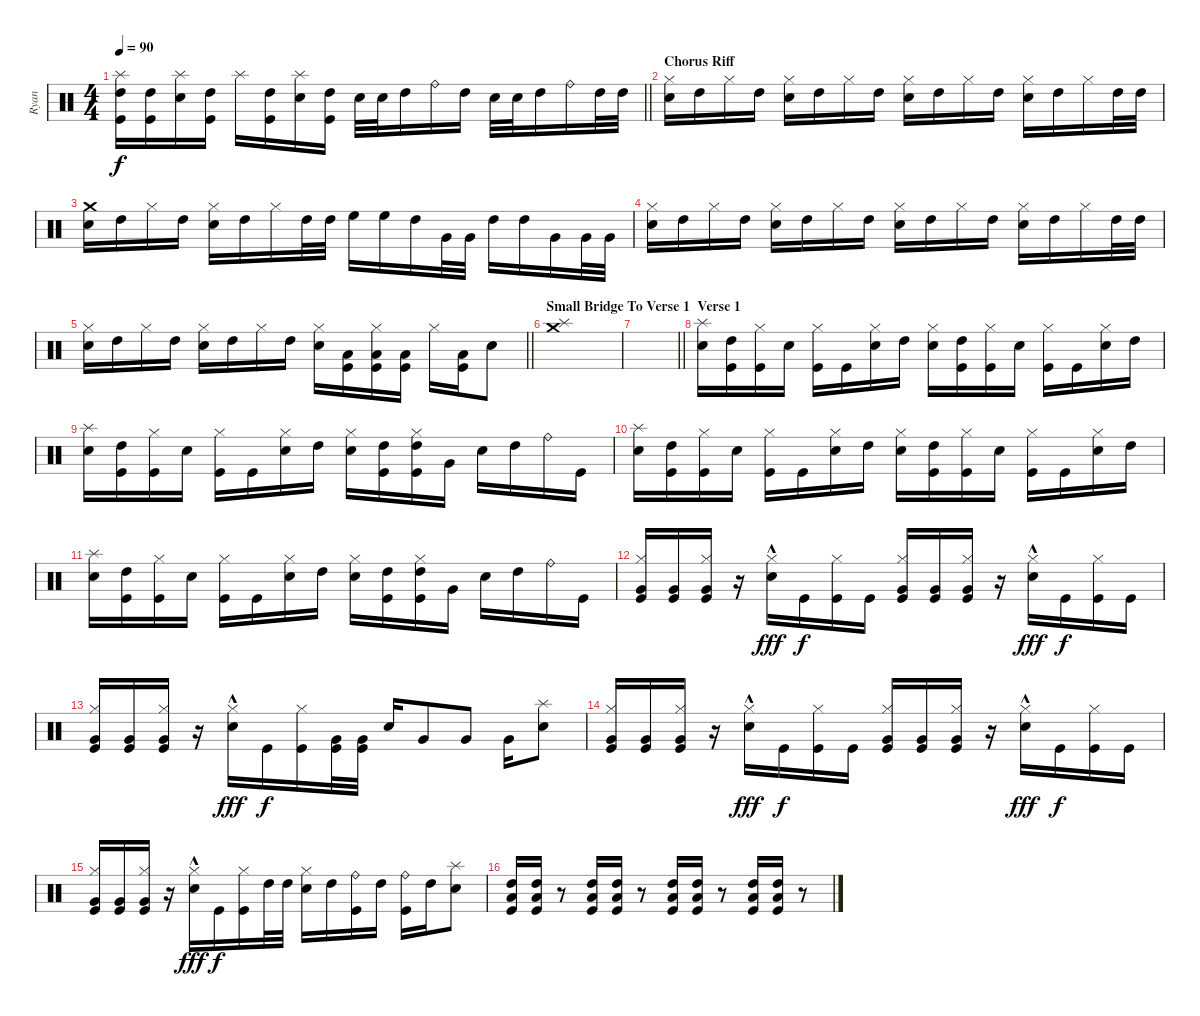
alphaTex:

\track ("Ryan" "Ryan") {instrument percussion}
\staff {score}
\articulation defaults
\ts (4 4)
\tempo 90
\clef neutral
\barLineRight lightlight
\ks c
("Splash (hit)" "Kick (hit)" "High Tom (hit)").16{dy f} ("Kick (hit)" "High Tom (hit)").16 ("Splash (hit)" "Snare (hit) 2").16 ("Kick (hit)" "High Tom (hit)").16 "Splash (hit)".16 ("Kick (hit)" "High Tom (hit)").16 ("Splash (hit)" "Snare (hit) 2").16 ("Kick (hit)" "High Tom (hit)").16 "Snare (hit) 2".32 "Snare (hit) 2".32 "High Tom (hit)".16 "Ride (bell)".16 "High Tom (hit)".16 "Snare (hit) 2".32 "Snare (hit) 2".32 "High Tom (hit)".16 "Ride (bell)".16 "High Tom (hit)".32 "High Tom (hit)".32 |
\section ("" "Chorus Riff")
("Hi-Hat (closed)" "Snare (hit) 2").16 "High Tom (hit)".16 "Hi-Hat (closed)".16 "High Tom (hit)".16 ("Hi-Hat (closed)" "Snare (hit) 2").16 "High Tom (hit)".16 "Hi-Hat (closed)".16 "High Tom (hit)".16 ("Hi-Hat (closed)" "Snare (hit) 2").16 "High Tom (hit)".16 "Hi-Hat (closed)".16 "High Tom (hit)".16 ("Hi-Hat (closed)" "Snare (hit) 2").16 "High Tom (hit)".16 "Hi-Hat (closed)".16 "High Tom (hit)".32 "High Tom (hit)".32 |
("Crash medium (hit)" "Snare (hit) 2").16 "High Tom (hit)".16 "Hi-Hat (closed)".16 "High Tom (hit)".16 ("Hi-Hat (closed)" "Snare (hit) 2").16 "High Tom (hit)".16 "Hi-Hat (closed)".16 "High Tom (hit)".32 "High Tom (hit)".32 "High Floor Tom (hit)".16 "High Floor Tom (hit)".16 "High Tom (hit)".16 "Very Low Tom (hit)".32 "Very Low Tom (hit)".32 "High Tom (hit)".16 "High Tom (hit)".16 "Very Low Tom (hit)".16 "Very Low Tom (hit)".32 "Very Low Tom (hit)".32 |
("Hi-Hat (closed)" "Snare (hit) 2").16 "High Tom (hit)".16 "Hi-Hat (closed)".16 "High Tom (hit)".16 ("Hi-Hat (closed)" "Snare (hit) 2").16 "High Tom (hit)".16 "Hi-Hat (closed)".16 "High Tom (hit)".16 ("Hi-Hat (closed)" "Snare (hit) 2").16 "High Tom (hit)".16 "Hi-Hat (closed)".16 "High Tom (hit)".16 ("Hi-Hat (closed)" "Snare (hit) 2").16 "High Tom (hit)".16 "Hi-Hat (closed)".16 "High Tom (hit)".32 "High Tom (hit)".32 |
\barLineRight lightlight
("Hi-Hat (closed)" "Snare (hit) 2").16 "High Tom (hit)".16 "Hi-Hat (closed)".16 "High Tom (hit)".16 ("Hi-Hat (closed)" "Snare (hit) 2").16 "High Tom (hit)".16 "Hi-Hat (closed)".16 "High Tom (hit)".16 ("Hi-Hat (closed)" "Snare (hit) 2").16 ("Kick (hit)" "Low Floor Tom (hit)").16 ("Hi-Hat (closed)" "Kick (hit)" "Low Floor Tom (hit)").16 ("Kick (hit)" "Low Floor Tom (hit)").16 "Hi-Hat (closed)".16 ("Kick (hit)" "Low Floor Tom (hit)").16 "Snare (hit) 2".8 |
\section ("" "Small Bridge To Verse 1")
("Crash medium (hit)" "Splash (hit)").1 |
\barLineRight lightlight
|
\section ("" "Verse 1")
("Splash (hit)" "Snare (hit) 2").16 ("High Tom (hit)" "Kick (hit)").16 ("Hi-Hat (closed)" "Kick (hit)").16 "Snare (hit) 2".16 ("Hi-Hat (closed)" "Kick (hit)").16 "Kick (hit)".16 ("Hi-Hat (closed)" "Snare (hit) 2").16 "High Tom (hit)".16 ("Hi-Hat (closed)" "Snare (hit) 2").16 ("High Tom (hit)" "Kick (hit)").16 ("Hi-Hat (closed)" "Kick (hit)").16 "Snare (hit) 2".16 ("Hi-Hat (closed)" "Kick (hit)").16 "Kick (hit)".16 ("Hi-Hat (closed)" "Snare (hit) 2").16 "High Tom (hit)".16 |
("Splash (hit)" "Snare (hit) 2").16 ("High Tom (hit)" "Kick (hit)").16 ("Hi-Hat (closed)" "Kick (hit)").16 "Snare (hit) 2".16 ("Hi-Hat (closed)" "Kick (hit)").16 "Kick (hit)".16 ("Hi-Hat (closed)" "Snare (hit) 2").16 "High Tom (hit)".16 ("Snare (hit) 2" "Hi-Hat (closed)").16 ("High Tom (hit)" "Kick (hit)").16 ("Hi-Hat (closed)" "High Tom (hit)" "Kick (hit)").16 "Very Low Tom (hit)".16 "Snare (hit) 2".16 "High Tom (hit)".16 "Ride (bell)".16 "Kick (hit)".16 |
("Splash (hit)" "Snare (hit) 2").16 ("High Tom (hit)" "Kick (hit)").16 ("Hi-Hat (closed)" "Kick (hit)").16 "Snare (hit) 2".16 ("Hi-Hat (closed)" "Kick (hit)").16 "Kick (hit)".16 ("Hi-Hat (closed)" "Snare (hit) 2").16 "High Tom (hit)".16 ("Hi-Hat (closed)" "Snare (hit) 2").16 ("High Tom (hit)" "Kick (hit)").16 ("Hi-Hat (closed)" "Kick (hit)").16 "Snare (hit) 2".16 ("Hi-Hat (closed)" "Kick (hit)").16 "Kick (hit)".16 ("Hi-Hat (closed)" "Snare (hit) 2").16 "High Tom (hit)".16 |
("Splash (hit)" "Snare (hit) 2").16 ("High Tom (hit)" "Kick (hit)").16 ("Hi-Hat (closed)" "Kick (hit)").16 "Snare (hit) 2".16 ("Hi-Hat (closed)" "Kick (hit)").16 "Kick (hit)".16 ("Hi-Hat (closed)" "Snare (hit) 2").16 "High Tom (hit)".16 ("Snare (hit) 2" "Hi-Hat (closed)").16 ("High Tom (hit)" "Kick (hit)").16 ("Hi-Hat (closed)" "High Tom (hit)" "Kick (hit)").16 "Very Low Tom (hit)".16 "Snare (hit) 2".16 "High Tom (hit)".16 "Ride (bell)".16 "Kick (hit)".16 |
("Hi-Hat (closed)" "Kick (hit)" "Very Low Tom (hit)").16 ("Kick (hit)" "Very Low Tom (hit)").16 ("Hi-Hat (closed)" "Kick (hit)" "Very Low Tom (hit)").16 r.16 ("Hi-Hat (closed)" "Snare (hit) 2"{hac}).16{dy fff} "Kick (hit)".16{dy f} ("Hi-Hat (closed)" "Kick (hit)").16 "Kick (hit)".16 ("Hi-Hat (closed)" "Kick (hit)" "Very Low Tom (hit)").16 ("Kick (hit)" "Very Low Tom (hit)").16 ("Hi-Hat (closed)" "Kick (hit)" "Very Low Tom (hit)").16 r.16 ("Hi-Hat (closed)" "Snare (hit) 2"{hac}).16{dy fff} "Kick (hit)".16{dy f} ("Hi-Hat (closed)" "Kick (hit)").16 "Kick (hit)".16 |
("Hi-Hat (closed)" "Kick (hit)" "Very Low Tom (hit)").16 ("Kick (hit)" "Very Low Tom (hit)").16 ("Hi-Hat (closed)" "Kick (hit)" "Very Low Tom (hit)").16 r.16 ("Hi-Hat (closed)" "Snare (hit) 2"{hac}).16{dy fff} "Kick (hit)".16{dy f} ("Hi-Hat (closed)" "Kick (hit)").16 ("Kick (hit)" "Very Low Tom (hit)").32 ("Kick (hit)" "Very Low Tom (hit)").32 "Snare (hit) 2".16 "Very Low Tom (hit)".8 "Very Low Tom (hit)".8 "Very Low Tom (hit)".16 ("Splash (hit)" "Snare (hit) 2").8 |
("Hi-Hat (closed)" "Kick (hit)" "Very Low Tom (hit)").16 ("Kick (hit)" "Very Low Tom (hit)").16 ("Hi-Hat (closed)" "Kick (hit)" "Very Low Tom (hit)").16 r.16 ("Hi-Hat (closed)" "Snare (hit) 2"{hac}).16{dy fff} "Kick (hit)".16{dy f} ("Hi-Hat (closed)" "Kick (hit)").16 "Kick (hit)".16 ("Hi-Hat (closed)" "Kick (hit)" "Very Low Tom (hit)").16 ("Kick (hit)" "Very Low Tom (hit)").16 ("Hi-Hat (closed)" "Kick (hit)" "Very Low Tom (hit)").16 r.16 ("Hi-Hat (closed)" "Snare (hit) 2"{hac}).16{dy fff} "Kick (hit)".16{dy f} ("Hi-Hat (closed)" "Kick (hit)").16 "Kick (hit)".16 |
("Hi-Hat (closed)" "Kick (hit)" "Very Low Tom (hit)").16 ("Kick (hit)" "Very Low Tom (hit)").16 ("Hi-Hat (closed)" "Kick (hit)" "Very Low Tom (hit)").16 r.16 ("Hi-Hat (closed)" "Snare (hit) 2"{hac}).16{dy fff} "Kick (hit)".16{dy f} ("Hi-Hat (closed)" "Kick (hit)").16 "High Tom (hit)".32 "High Tom (hit)".32 ("Hi-Hat (closed)" "Snare (hit) 2").16 "High Tom (hit)".16 ("Ride (bell)" "Kick (hit)").16 "High Tom (hit)".16 ("Ride (bell)" "Kick (hit)").16 "High Tom (hit)".16 ("Splash (hit)" "Snare (hit) 2").8 |
("High Tom (hit)" "Low Floor Tom (hit)" "Kick (hit)").16 ("High Tom (hit)" "Low Floor Tom (hit)" "Kick (hit)").16 r.8 ("High Tom (hit)" "Low Floor Tom (hit)" "Kick (hit)").16 ("High Tom (hit)" "Low Floor Tom (hit)" "Kick (hit)").16 r.8 ("High Tom (hit)" "Low Floor Tom (hit)" "Kick (hit)").16 ("High Tom (hit)" "Low Floor Tom (hit)" "Kick (hit)").16 r.8 ("High Tom (hit)" "Low Floor Tom (hit)" "Kick (hit)").16 ("High Tom (hit)" "Low Floor Tom (hit)" "Kick (hit)").16 r.8
